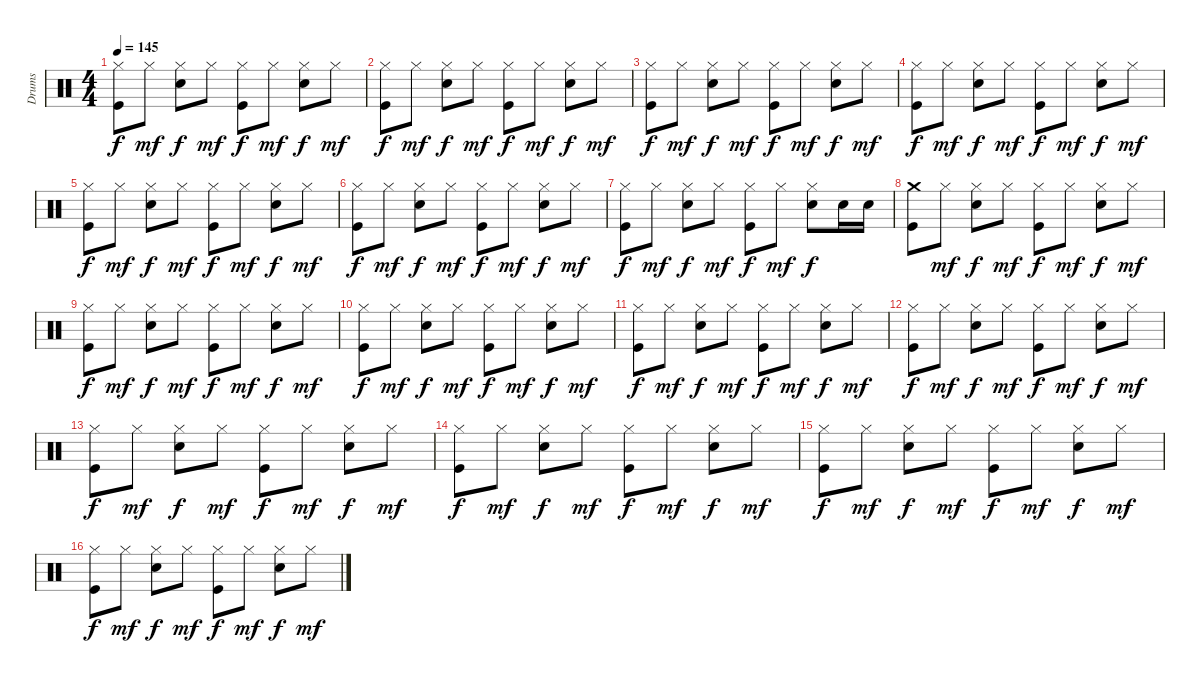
\track ("Drums" "Drums") {instrument percussion}
\staff {score}
\articulation defaults
\ts (4 4)
\tempo 145
\clef neutral
\ks c
("Hi-Hat (closed)" "Kick (hit)").8{dy f} "Hi-Hat (closed)".8{dy mf} ("Hi-Hat (closed)" "Snare (hit) 2").8{dy f} "Hi-Hat (closed)".8{dy mf} ("Hi-Hat (closed)" "Kick (hit)").8{dy f} "Hi-Hat (closed)".8{dy mf} ("Hi-Hat (closed)" "Snare (hit) 2").8{dy f} "Hi-Hat (closed)".8{dy mf} |
("Hi-Hat (closed)" "Kick (hit)").8{dy f} "Hi-Hat (closed)".8{dy mf} ("Hi-Hat (closed)" "Snare (hit) 2").8{dy f} "Hi-Hat (closed)".8{dy mf} ("Hi-Hat (closed)" "Kick (hit)").8{dy f} "Hi-Hat (closed)".8{dy mf} ("Hi-Hat (closed)" "Snare (hit) 2").8{dy f} "Hi-Hat (closed)".8{dy mf} |
("Hi-Hat (closed)" "Kick (hit)").8{dy f} "Hi-Hat (closed)".8{dy mf} ("Hi-Hat (closed)" "Snare (hit) 2").8{dy f} "Hi-Hat (closed)".8{dy mf} ("Hi-Hat (closed)" "Kick (hit)").8{dy f} "Hi-Hat (closed)".8{dy mf} ("Hi-Hat (closed)" "Snare (hit) 2").8{dy f} "Hi-Hat (closed)".8{dy mf} |
("Hi-Hat (closed)" "Kick (hit)").8{dy f} "Hi-Hat (closed)".8{dy mf} ("Hi-Hat (closed)" "Snare (hit) 2").8{dy f} "Hi-Hat (closed)".8{dy mf} ("Hi-Hat (closed)" "Kick (hit)").8{dy f} "Hi-Hat (closed)".8{dy mf} ("Hi-Hat (closed)" "Snare (hit) 2").8{dy f} "Hi-Hat (closed)".8{dy mf} |
("Hi-Hat (closed)" "Kick (hit)").8{dy f} "Hi-Hat (closed)".8{dy mf} ("Hi-Hat (closed)" "Snare (hit) 2").8{dy f} "Hi-Hat (closed)".8{dy mf} ("Hi-Hat (closed)" "Kick (hit)").8{dy f} "Hi-Hat (closed)".8{dy mf} ("Hi-Hat (closed)" "Snare (hit) 2").8{dy f} "Hi-Hat (closed)".8{dy mf} |
("Hi-Hat (closed)" "Kick (hit)").8{dy f} "Hi-Hat (closed)".8{dy mf} ("Hi-Hat (closed)" "Snare (hit) 2").8{dy f} "Hi-Hat (closed)".8{dy mf} ("Hi-Hat (closed)" "Kick (hit)").8{dy f} "Hi-Hat (closed)".8{dy mf} ("Hi-Hat (closed)" "Snare (hit) 2").8{dy f} "Hi-Hat (closed)".8{dy mf} |
("Hi-Hat (closed)" "Kick (hit)").8{dy f} "Hi-Hat (closed)".8{dy mf} ("Hi-Hat (closed)" "Snare (hit) 2").8{dy f} "Hi-Hat (closed)".8{dy mf} ("Hi-Hat (closed)" "Kick (hit)").8{dy f} "Hi-Hat (closed)".8{dy mf} ("Hi-Hat (closed)" "Snare (hit) 2").8{dy f} "Snare (hit) 2".16 "Snare (hit) 2".16 |
("Kick (hit)" "Crash medium (hit)").8 "Hi-Hat (closed)".8{dy mf} ("Hi-Hat (closed)" "Snare (hit) 2").8{dy f} "Hi-Hat (closed)".8{dy mf} ("Hi-Hat (closed)" "Kick (hit)").8{dy f} "Hi-Hat (closed)".8{dy mf} ("Hi-Hat (closed)" "Snare (hit) 2").8{dy f} "Hi-Hat (closed)".8{dy mf} |
("Hi-Hat (closed)" "Kick (hit)").8{dy f} "Hi-Hat (closed)".8{dy mf} ("Hi-Hat (closed)" "Snare (hit) 2").8{dy f} "Hi-Hat (closed)".8{dy mf} ("Hi-Hat (closed)" "Kick (hit)").8{dy f} "Hi-Hat (closed)".8{dy mf} ("Hi-Hat (closed)" "Snare (hit) 2").8{dy f} "Hi-Hat (closed)".8{dy mf} |
("Hi-Hat (closed)" "Kick (hit)").8{dy f} "Hi-Hat (closed)".8{dy mf} ("Hi-Hat (closed)" "Snare (hit) 2").8{dy f} "Hi-Hat (closed)".8{dy mf} ("Hi-Hat (closed)" "Kick (hit)").8{dy f} "Hi-Hat (closed)".8{dy mf} ("Hi-Hat (closed)" "Snare (hit) 2").8{dy f} "Hi-Hat (closed)".8{dy mf} |
("Hi-Hat (closed)" "Kick (hit)").8{dy f} "Hi-Hat (closed)".8{dy mf} ("Hi-Hat (closed)" "Snare (hit) 2").8{dy f} "Hi-Hat (closed)".8{dy mf} ("Hi-Hat (closed)" "Kick (hit)").8{dy f} "Hi-Hat (closed)".8{dy mf} ("Hi-Hat (closed)" "Snare (hit) 2").8{dy f} "Hi-Hat (closed)".8{dy mf} |
("Hi-Hat (closed)" "Kick (hit)").8{dy f} "Hi-Hat (closed)".8{dy mf} ("Hi-Hat (closed)" "Snare (hit) 2").8{dy f} "Hi-Hat (closed)".8{dy mf} ("Hi-Hat (closed)" "Kick (hit)").8{dy f} "Hi-Hat (closed)".8{dy mf} ("Hi-Hat (closed)" "Snare (hit) 2").8{dy f} "Hi-Hat (closed)".8{dy mf} |
("Hi-Hat (closed)" "Kick (hit)").8{dy f} "Hi-Hat (closed)".8{dy mf} ("Hi-Hat (closed)" "Snare (hit) 2").8{dy f} "Hi-Hat (closed)".8{dy mf} ("Hi-Hat (closed)" "Kick (hit)").8{dy f} "Hi-Hat (closed)".8{dy mf} ("Hi-Hat (closed)" "Snare (hit) 2").8{dy f} "Hi-Hat (closed)".8{dy mf} |
("Hi-Hat (closed)" "Kick (hit)").8{dy f} "Hi-Hat (closed)".8{dy mf} ("Hi-Hat (closed)" "Snare (hit) 2").8{dy f} "Hi-Hat (closed)".8{dy mf} ("Hi-Hat (closed)" "Kick (hit)").8{dy f} "Hi-Hat (closed)".8{dy mf} ("Hi-Hat (closed)" "Snare (hit) 2").8{dy f} "Hi-Hat (closed)".8{dy mf} |
("Hi-Hat (closed)" "Kick (hit)").8{dy f} "Hi-Hat (closed)".8{dy mf} ("Hi-Hat (closed)" "Snare (hit) 2").8{dy f} "Hi-Hat (closed)".8{dy mf} ("Hi-Hat (closed)" "Kick (hit)").8{dy f} "Hi-Hat (closed)".8{dy mf} ("Hi-Hat (closed)" "Snare (hit) 2").8{dy f} "Hi-Hat (closed)".8{dy mf} |
("Hi-Hat (closed)" "Kick (hit)").8{dy f} "Hi-Hat (closed)".8{dy mf} ("Hi-Hat (closed)" "Snare (hit) 2").8{dy f} "Hi-Hat (closed)".8{dy mf} ("Hi-Hat (closed)" "Kick (hit)").8{dy f} "Hi-Hat (closed)".8{dy mf} ("Hi-Hat (closed)" "Snare (hit) 2").8{dy f} "Hi-Hat (closed)".8{dy mf}
